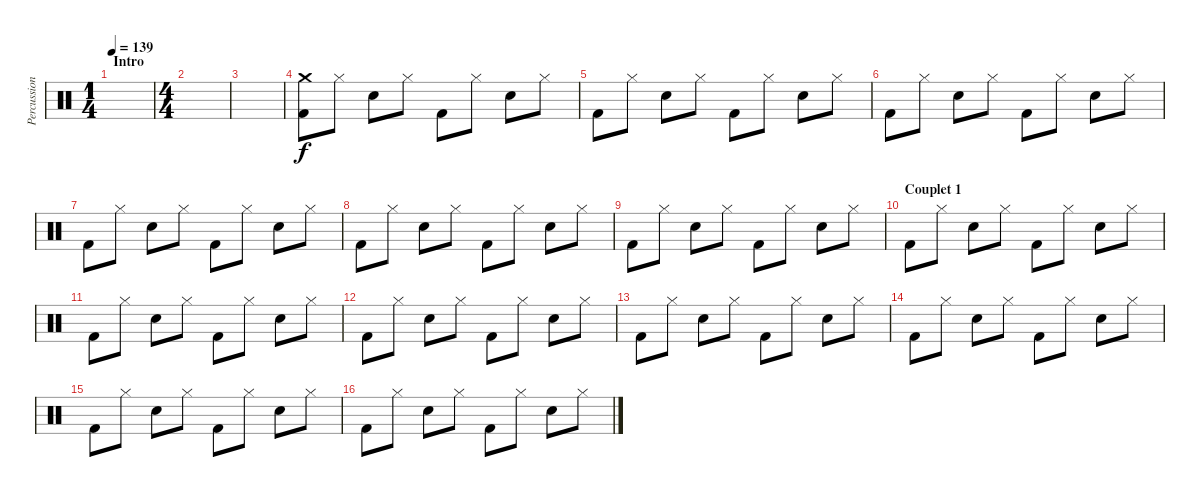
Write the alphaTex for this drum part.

\track ("Percussions" "Percussion") {instrument percussion}
\staff {score}
\articulation defaults
\ts (1 4)
\section ("" "Intro")
\tempo 139
\clef neutral
\ks c
|
\ts (4 4)
|
|
("Crash medium (hit)" "Kick (hit) 2").8 "Hi-Hat (closed)".8 "Snare (hit) 2".8 "Hi-Hat (closed)".8 "Kick (hit) 2".8 "Hi-Hat (closed)".8 "Snare (hit) 2".8 "Hi-Hat (closed)".8 |
"Kick (hit) 2".8 "Hi-Hat (closed)".8 "Snare (hit) 2".8 "Hi-Hat (closed)".8 "Kick (hit) 2".8 "Hi-Hat (closed)".8 "Snare (hit) 2".8 "Hi-Hat (closed)".8 |
"Kick (hit) 2".8 "Hi-Hat (closed)".8 "Snare (hit) 2".8 "Hi-Hat (closed)".8 "Kick (hit) 2".8 "Hi-Hat (closed)".8 "Snare (hit) 2".8 "Hi-Hat (closed)".8 |
"Kick (hit) 2".8 "Hi-Hat (closed)".8 "Snare (hit) 2".8 "Hi-Hat (closed)".8 "Kick (hit) 2".8 "Hi-Hat (closed)".8 "Snare (hit) 2".8 "Hi-Hat (closed)".8 |
"Kick (hit) 2".8 "Hi-Hat (closed)".8 "Snare (hit) 2".8 "Hi-Hat (closed)".8 "Kick (hit) 2".8 "Hi-Hat (closed)".8 "Snare (hit) 2".8 "Hi-Hat (closed)".8 |
"Kick (hit) 2".8 "Hi-Hat (closed)".8 "Snare (hit) 2".8 "Hi-Hat (closed)".8 "Kick (hit) 2".8 "Hi-Hat (closed)".8 "Snare (hit) 2".8 "Hi-Hat (closed)".8 |
\section ("" "Couplet 1")
"Kick (hit) 2".8 "Hi-Hat (closed)".8 "Snare (hit) 2".8 "Hi-Hat (closed)".8 "Kick (hit) 2".8 "Hi-Hat (closed)".8 "Snare (hit) 2".8 "Hi-Hat (closed)".8 |
"Kick (hit) 2".8 "Hi-Hat (closed)".8 "Snare (hit) 2".8 "Hi-Hat (closed)".8 "Kick (hit) 2".8 "Hi-Hat (closed)".8 "Snare (hit) 2".8 "Hi-Hat (closed)".8 |
"Kick (hit) 2".8 "Hi-Hat (closed)".8 "Snare (hit) 2".8 "Hi-Hat (closed)".8 "Kick (hit) 2".8 "Hi-Hat (closed)".8 "Snare (hit) 2".8 "Hi-Hat (closed)".8 |
"Kick (hit) 2".8 "Hi-Hat (closed)".8 "Snare (hit) 2".8 "Hi-Hat (closed)".8 "Kick (hit) 2".8 "Hi-Hat (closed)".8 "Snare (hit) 2".8 "Hi-Hat (closed)".8 |
"Kick (hit) 2".8 "Hi-Hat (closed)".8 "Snare (hit) 2".8 "Hi-Hat (closed)".8 "Kick (hit) 2".8 "Hi-Hat (closed)".8 "Snare (hit) 2".8 "Hi-Hat (closed)".8 |
"Kick (hit) 2".8 "Hi-Hat (closed)".8 "Snare (hit) 2".8 "Hi-Hat (closed)".8 "Kick (hit) 2".8 "Hi-Hat (closed)".8 "Snare (hit) 2".8 "Hi-Hat (closed)".8 |
"Kick (hit) 2".8 "Hi-Hat (closed)".8 "Snare (hit) 2".8 "Hi-Hat (closed)".8 "Kick (hit) 2".8 "Hi-Hat (closed)".8 "Snare (hit) 2".8 "Hi-Hat (closed)".8
